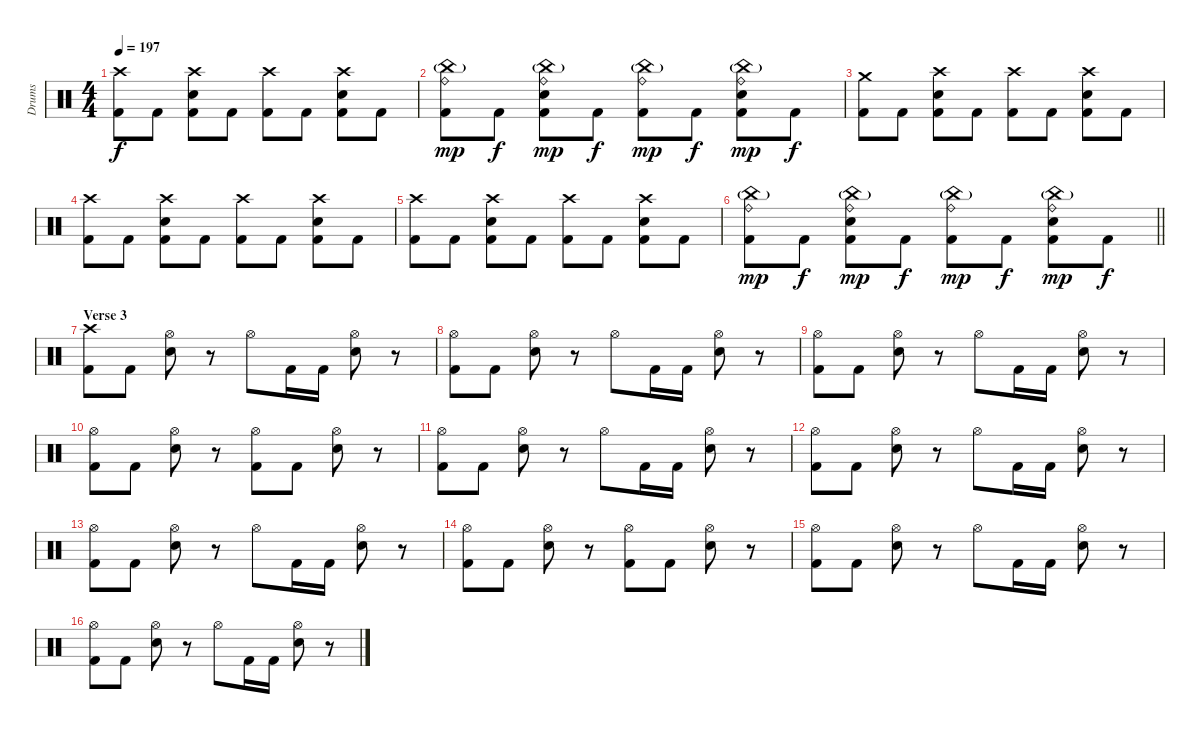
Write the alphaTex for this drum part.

\track ("Drums" "Drums") {instrument percussion}
\staff {score}
\articulation defaults
\ts (4 4)
\tempo 197
\clef neutral
\ks c
("Crash high (hit)" "Kick (hit) 2").8{dy f} "Kick (hit) 2".8 ("Crash high (hit)" "Electric Snare (hit)" "Kick (hit) 2").8 "Kick (hit) 2".8 ("Crash high (hit)" "Kick (hit) 2").8 "Kick (hit) 2".8 ("Crash high (hit)" "Electric Snare (hit)" "Kick (hit) 2").8 "Kick (hit) 2".8 |
("China (hit)"{g} "Ride (bell)" "Kick (hit) 2").8{dy mp} "Kick (hit) 2".8{dy f} ("China (hit)"{g} "Ride (bell)" "Electric Snare (hit)" "Kick (hit) 2").8{dy mp} "Kick (hit) 2".8{dy f} ("China (hit)"{g} "Ride (bell)" "Kick (hit) 2").8{dy mp} "Kick (hit) 2".8{dy f} ("China (hit)"{g} "Ride (bell)" "Electric Snare (hit)" "Kick (hit) 2").8{dy mp} "Kick (hit) 2".8{dy f} |
("Crash medium (hit)" "Kick (hit) 2").8 "Kick (hit) 2".8 ("Crash high (hit)" "Electric Snare (hit)" "Kick (hit) 2").8 "Kick (hit) 2".8 ("Crash high (hit)" "Kick (hit) 2").8 "Kick (hit) 2".8 ("Crash high (hit)" "Electric Snare (hit)" "Kick (hit) 2").8 "Kick (hit) 2".8 |
("Crash high (hit)" "Kick (hit) 2").8 "Kick (hit) 2".8 ("Crash high (hit)" "Electric Snare (hit)" "Kick (hit) 2").8 "Kick (hit) 2".8 ("Crash high (hit)" "Kick (hit) 2").8 "Kick (hit) 2".8 ("Crash high (hit)" "Electric Snare (hit)" "Kick (hit) 2").8 "Kick (hit) 2".8 |
("Crash high (hit)" "Kick (hit) 2").8 "Kick (hit) 2".8 ("Crash high (hit)" "Electric Snare (hit)" "Kick (hit) 2").8 "Kick (hit) 2".8 ("Crash high (hit)" "Kick (hit) 2").8 "Kick (hit) 2".8 ("Crash high (hit)" "Electric Snare (hit)" "Kick (hit) 2").8 "Kick (hit) 2".8 |
\barLineRight lightlight
("China (hit)"{g} "Ride (bell)" "Kick (hit) 2").8{dy mp} "Kick (hit) 2".8{dy f} ("China (hit)"{g} "Ride (bell)" "Electric Snare (hit)" "Kick (hit) 2").8{dy mp} "Kick (hit) 2".8{dy f} ("China (hit)"{g} "Ride (bell)" "Kick (hit) 2").8{dy mp} "Kick (hit) 2".8{dy f} ("China (hit)"{g} "Ride (bell)" "Electric Snare (hit)" "Kick (hit) 2").8{dy mp} "Kick (hit) 2".8{dy f} |
\section ("" "Verse 3")
("Crash high (hit)" "Kick (hit) 2").8 "Kick (hit) 2".8 ("Hi-Hat (open)" "Electric Snare (hit)").8 r.8 "Hi-Hat (open)".8 "Kick (hit) 2".16 "Kick (hit) 2".16 ("Hi-Hat (open)" "Electric Snare (hit)").8 r.8 |
("Hi-Hat (open)" "Kick (hit) 2").8 "Kick (hit) 2".8 ("Hi-Hat (open)" "Electric Snare (hit)").8 r.8 "Hi-Hat (open)".8 "Kick (hit) 2".16 "Kick (hit) 2".16 ("Hi-Hat (open)" "Electric Snare (hit)").8 r.8 |
("Hi-Hat (open)" "Kick (hit) 2").8 "Kick (hit) 2".8 ("Hi-Hat (open)" "Electric Snare (hit)").8 r.8 "Hi-Hat (open)".8 "Kick (hit) 2".16 "Kick (hit) 2".16 ("Hi-Hat (open)" "Electric Snare (hit)").8 r.8 |
("Hi-Hat (open)" "Kick (hit) 2").8 "Kick (hit) 2".8 ("Hi-Hat (open)" "Electric Snare (hit)").8 r.8 ("Hi-Hat (open)" "Kick (hit) 2").8 "Kick (hit) 2".8 ("Hi-Hat (open)" "Electric Snare (hit)").8 r.8 |
("Hi-Hat (open)" "Kick (hit) 2").8 "Kick (hit) 2".8 ("Hi-Hat (open)" "Electric Snare (hit)").8 r.8 "Hi-Hat (open)".8 "Kick (hit) 2".16 "Kick (hit) 2".16 ("Hi-Hat (open)" "Electric Snare (hit)").8 r.8 |
("Hi-Hat (open)" "Kick (hit) 2").8 "Kick (hit) 2".8 ("Hi-Hat (open)" "Electric Snare (hit)").8 r.8 "Hi-Hat (open)".8 "Kick (hit) 2".16 "Kick (hit) 2".16 ("Hi-Hat (open)" "Electric Snare (hit)").8 r.8 |
("Hi-Hat (open)" "Kick (hit) 2").8 "Kick (hit) 2".8 ("Hi-Hat (open)" "Electric Snare (hit)").8 r.8 "Hi-Hat (open)".8 "Kick (hit) 2".16 "Kick (hit) 2".16 ("Hi-Hat (open)" "Electric Snare (hit)").8 r.8 |
("Hi-Hat (open)" "Kick (hit) 2").8 "Kick (hit) 2".8 ("Hi-Hat (open)" "Electric Snare (hit)").8 r.8 ("Hi-Hat (open)" "Kick (hit) 2").8 "Kick (hit) 2".8 ("Hi-Hat (open)" "Electric Snare (hit)").8 r.8 |
("Hi-Hat (open)" "Kick (hit) 2").8 "Kick (hit) 2".8 ("Hi-Hat (open)" "Electric Snare (hit)").8 r.8 "Hi-Hat (open)".8 "Kick (hit) 2".16 "Kick (hit) 2".16 ("Hi-Hat (open)" "Electric Snare (hit)").8 r.8 |
("Hi-Hat (open)" "Kick (hit) 2").8 "Kick (hit) 2".8 ("Hi-Hat (open)" "Electric Snare (hit)").8 r.8 "Hi-Hat (open)".8 "Kick (hit) 2".16 "Kick (hit) 2".16 ("Hi-Hat (open)" "Electric Snare (hit)").8 r.8
